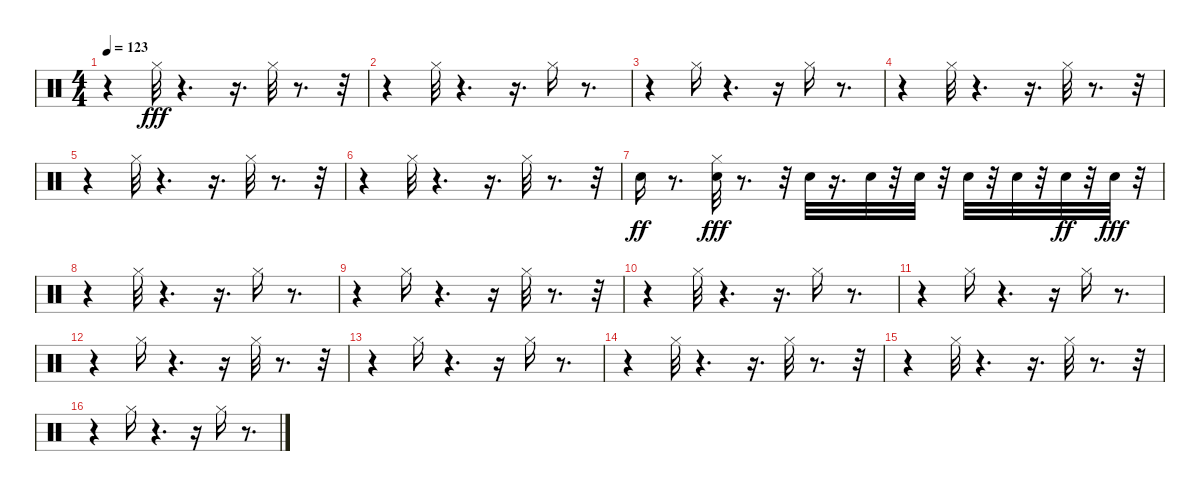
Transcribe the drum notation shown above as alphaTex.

\track "" {instrument percussion}
\staff {score}
\articulation defaults
\ts (4 4)
\tempo 123
\clef neutral
\ks c
r.4{dy fff} "Hi-Hat (closed)".32 r.4{d} r.16{d} "Hi-Hat (closed)".32 r.8{d} r.32 |
r.4 "Hi-Hat (closed)".32 r.4{d} r.16{d} "Hi-Hat (closed)".16 r.8{d} |
r.4 "Hi-Hat (closed)".16 r.4{d} r.16 "Hi-Hat (closed)".16 r.8{d} |
r.4 "Hi-Hat (closed)".32 r.4{d} r.16{d} "Hi-Hat (closed)".32 r.8{d} r.32 |
r.4 "Hi-Hat (closed)".32 r.4{d} r.16{d} "Hi-Hat (closed)".32 r.8{d} r.32 |
r.4 "Hi-Hat (closed)".32 r.4{d} r.16{d} "Hi-Hat (closed)".32 r.8{d} r.32 |
"Snare (hit) 2".16{dy ff} r.8{d} ("Snare (hit) 2" "Hi-Hat (closed)").32{dy fff} r.8{d} r.32 "Snare (hit) 2".32 r.16{d} "Snare (hit) 2".32 r.32 "Snare (hit) 2".32 r.32 "Snare (hit) 2".32 r.32 "Snare (hit) 2".32 r.32 "Snare (hit) 2".32{dy ff} r.32 "Snare (hit) 2".32{dy fff} r.32 |
r.4 "Hi-Hat (closed)".32 r.4{d} r.16{d} "Hi-Hat (closed)".16 r.8{d} |
r.4 "Hi-Hat (closed)".16 r.4{d} r.16 "Hi-Hat (closed)".32 r.8{d} r.32 |
r.4 "Hi-Hat (closed)".32 r.4{d} r.16{d} "Hi-Hat (closed)".16 r.8{d} |
r.4 "Hi-Hat (closed)".16 r.4{d} r.16 "Hi-Hat (closed)".16 r.8{d} |
r.4 "Hi-Hat (closed)".16 r.4{d} r.16 "Hi-Hat (closed)".32 r.8{d} r.32 |
r.4 "Hi-Hat (closed)".16 r.4{d} r.16 "Hi-Hat (closed)".16 r.8{d} |
r.4 "Hi-Hat (closed)".32 r.4{d} r.16{d} "Hi-Hat (closed)".32 r.8{d} r.32 |
r.4 "Hi-Hat (closed)".32 r.4{d} r.16{d} "Hi-Hat (closed)".32 r.8{d} r.32 |
r.4 "Hi-Hat (closed)".16 r.4{d} r.16 "Hi-Hat (closed)".16 r.8{d}
